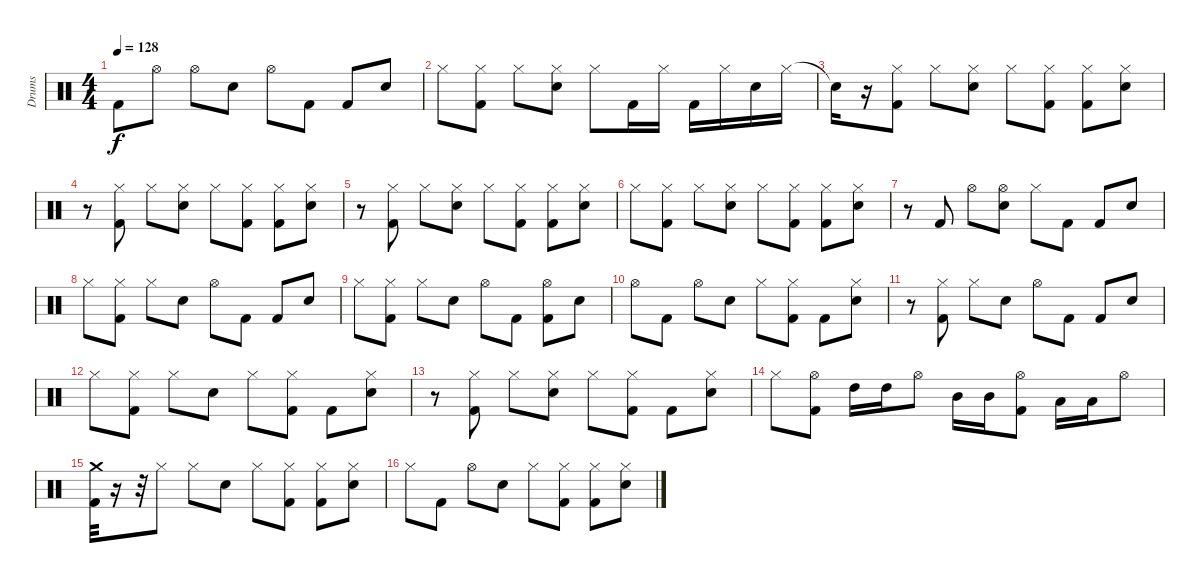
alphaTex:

\track ("Drums" "Drums") {instrument percussion}
\staff {score}
\articulation defaults
\ts (4 4)
\tempo 128
\clef neutral
\ks c "Kick (hit) 2".8{dy f} "Hi-Hat (open)".8 "Hi-Hat (open)".8 "Snare (hit) 2".8 "Hi-Hat (open)".8 "Kick (hit) 2".8 "Kick (hit) 2".8 "Snare (hit) 2".8
|
"Hi-Hat (closed)".8 ("Hi-Hat (closed)" "Kick (hit) 2").8 "Hi-Hat (closed)".8 ("Hi-Hat (closed)" "Snare (hit) 2").8 "Hi-Hat (closed)".8 "Kick (hit) 2".16 "Hi-Hat (closed)".16 "Kick (hit) 2".16 "Hi-Hat (closed)".16 "Snare (hit) 2".16 "Hi-Hat (closed)".16 |
"Snare (hit)"{t}.16 r.16 ("Hi-Hat (closed)" "Kick (hit) 2").8 "Hi-Hat (closed)".8 ("Hi-Hat (closed)" "Snare (hit) 2").8 "Hi-Hat (closed)".8 ("Hi-Hat (closed)" "Kick (hit) 2").8 ("Hi-Hat (closed)" "Kick (hit) 2").8 ("Hi-Hat (closed)" "Snare (hit) 2").8 |
r.8 ("Hi-Hat (closed)" "Kick (hit) 2").8 "Hi-Hat (closed)".8 ("Hi-Hat (closed)" "Snare (hit) 2").8 "Hi-Hat (closed)".8 ("Hi-Hat (closed)" "Kick (hit) 2").8 ("Hi-Hat (closed)" "Kick (hit) 2").8 ("Hi-Hat (closed)" "Snare (hit) 2").8 |
r.8 ("Hi-Hat (closed)" "Kick (hit) 2").8 "Hi-Hat (closed)".8 ("Hi-Hat (closed)" "Snare (hit) 2").8 "Hi-Hat (closed)".8 ("Hi-Hat (closed)" "Kick (hit) 2").8 ("Hi-Hat (closed)" "Kick (hit) 2").8 ("Hi-Hat (closed)" "Snare (hit) 2").8 |
"Hi-Hat (closed)".8 ("Hi-Hat (closed)" "Kick (hit) 2").8 "Hi-Hat (closed)".8 ("Hi-Hat (closed)" "Snare (hit) 2").8 "Hi-Hat (closed)".8 ("Hi-Hat (closed)" "Kick (hit) 2").8 ("Hi-Hat (closed)" "Kick (hit) 2").8 ("Hi-Hat (closed)" "Snare (hit) 2").8 |
r.8 "Kick (hit) 2".8 "Hi-Hat (open)".8 ("Hi-Hat (open)" "Snare (hit) 2").8 "Hi-Hat (closed)".8 "Kick (hit) 2".8 "Kick (hit) 2".8 "Snare (hit) 2".8 |
"Hi-Hat (closed)".8 ("Hi-Hat (closed)" "Kick (hit) 2").8 "Hi-Hat (closed)".8 "Snare (hit) 2".8 "Hi-Hat (open)".8 "Kick (hit) 2".8 "Kick (hit) 2".8 "Snare (hit) 2".8 |
"Hi-Hat (closed)".8 ("Hi-Hat (closed)" "Kick (hit) 2").8 "Hi-Hat (closed)".8 "Snare (hit) 2".8 "Hi-Hat (open)".8 "Kick (hit) 2".8 ("Hi-Hat (open)" "Kick (hit) 2").8 "Snare (hit) 2".8 |
"Hi-Hat (open)".8 "Kick (hit) 2".8 "Hi-Hat (open)".8 "Snare (hit) 2".8 "Hi-Hat (closed)".8 ("Hi-Hat (closed)" "Kick (hit) 2").8 "Kick (hit) 2".8 ("Hi-Hat (closed)" "Snare (hit) 2").8 |
r.8 ("Hi-Hat (closed)" "Kick (hit) 2").8 "Hi-Hat (closed)".8 "Snare (hit) 2".8 "Hi-Hat (open)".8 "Kick (hit) 2".8 "Kick (hit) 2".8 "Snare (hit) 2".8 |
"Hi-Hat (closed)".8 ("Hi-Hat (closed)" "Kick (hit) 2").8 "Hi-Hat (closed)".8 "Snare (hit) 2".8 "Hi-Hat (closed)".8 ("Hi-Hat (closed)" "Kick (hit) 2").8 "Kick (hit) 2".8 ("Hi-Hat (closed)" "Snare (hit) 2").8 |
r.8 ("Hi-Hat (closed)" "Kick (hit) 2").8 "Hi-Hat (closed)".8 ("Hi-Hat (closed)" "Snare (hit) 2").8 "Hi-Hat (closed)".8 ("Hi-Hat (closed)" "Kick (hit) 2").8 "Kick (hit) 2".8 ("Hi-Hat (closed)" "Snare (hit) 2").8 |
"Hi-Hat (closed)".8 ("Hi-Hat (open)" "Kick (hit) 2").8 "High Tom (hit)".16 "High Tom (hit)".16 "Hi-Hat (open)".8 "Mid Tom (hit)".16 "Mid Tom (hit)".16 ("Hi-Hat (open)" "Kick (hit) 2").8 "Low Tom (hit)".16 "Low Tom (hit)".16 "Hi-Hat (open)".8 |
("Crash medium (hit)" "Kick (hit) 2").32 r.16 r.32 "Hi-Hat (closed)".8 "Hi-Hat (closed)".8 "Snare (hit) 2".8 "Hi-Hat (closed)".8 ("Hi-Hat (closed)" "Kick (hit) 2").8 ("Hi-Hat (closed)" "Kick (hit) 2").8 ("Hi-Hat (closed)" "Snare (hit) 2").8 |
"Hi-Hat (closed)".8 "Kick (hit) 2".8 "Hi-Hat (open)".8 "Snare (hit) 2".8 "Hi-Hat (closed)".8 ("Hi-Hat (closed)" "Kick (hit) 2").8 ("Hi-Hat (closed)" "Kick (hit) 2").8 ("Hi-Hat (closed)" "Snare (hit) 2").8
